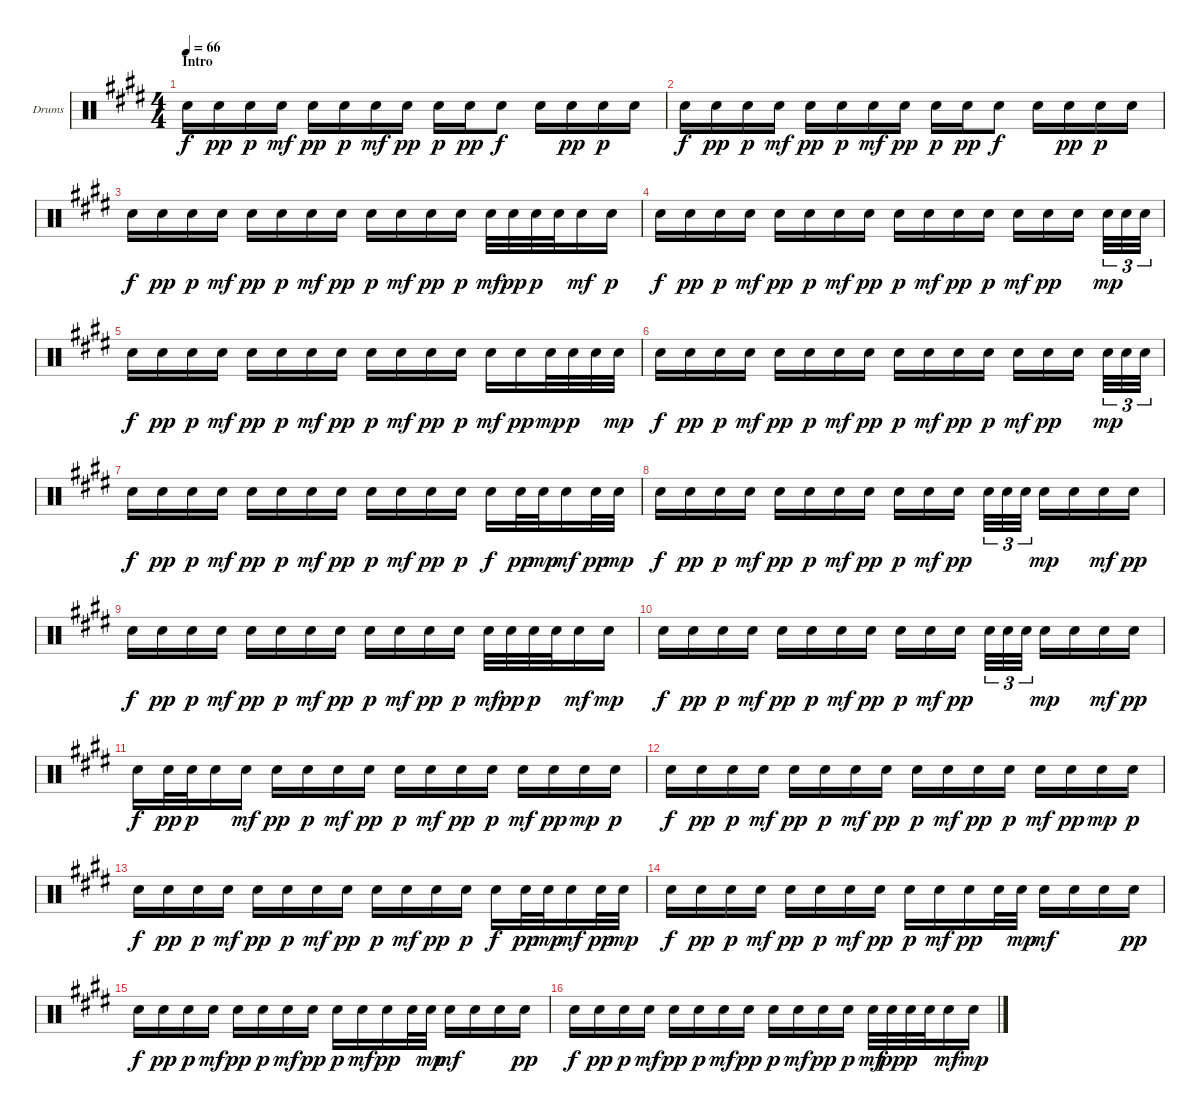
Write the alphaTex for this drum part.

\defaultSystemsLayout 4
\bracketExtendMode groupsimilarinstruments
\firstSystemTrackNameOrientation horizontal
\otherSystemsTrackNameOrientation horizontal
\track ("Drumkit" "Drums") {instrument percussion}
\staff {score}
\articulation defaults
\ts (4 4)
\section ("" "Intro")
\tempo 66
\clef neutral
\ks c#minor "Snare (hit) 2".16{dy f} "Snare (hit) 2".16{dy pp} "Snare (hit) 2".16{dy p} "Snare (hit) 2".16{dy mf} "Snare (hit) 2".16{dy pp} "Snare (hit) 2".16{dy p} "Snare (hit) 2".16{dy mf} "Snare (hit) 2".16{dy pp} "Snare (hit) 2".16{dy p} "Snare (hit) 2".16{dy pp} "Snare (hit) 2".8{dy f} "Snare (hit) 2".16 "Snare (hit) 2".16{dy pp} "Snare (hit) 2".16{dy p} "Snare (hit) 2".16
|
"Snare (hit) 2".16{dy f} "Snare (hit) 2".16{dy pp} "Snare (hit) 2".16{dy p} "Snare (hit) 2".16{dy mf} "Snare (hit) 2".16{dy pp} "Snare (hit) 2".16{dy p} "Snare (hit) 2".16{dy mf} "Snare (hit) 2".16{dy pp} "Snare (hit) 2".16{dy p} "Snare (hit) 2".16{dy pp} "Snare (hit) 2".8{dy f} "Snare (hit) 2".16 "Snare (hit) 2".16{dy pp} "Snare (hit) 2".16{dy p} "Snare (hit) 2".16 |
"Snare (hit) 2".16{dy f} "Snare (hit) 2".16{dy pp} "Snare (hit) 2".16{dy p} "Snare (hit) 2".16{dy mf} "Snare (hit) 2".16{dy pp} "Snare (hit) 2".16{dy p} "Snare (hit) 2".16{dy mf} "Snare (hit) 2".16{dy pp} "Snare (hit) 2".16{dy p} "Snare (hit) 2".16{dy mf} "Snare (hit) 2".16{dy pp} "Snare (hit) 2".16{dy p} "Snare (hit) 2".32{dy mf} "Snare (hit) 2".32{dy pp} "Snare (hit) 2".32{dy p} "Snare (hit) 2".32 "Snare (hit) 2".16{dy mf} "Snare (hit) 2".16{dy p} |
"Snare (hit) 2".16{dy f} "Snare (hit) 2".16{dy pp} "Snare (hit) 2".16{dy p} "Snare (hit) 2".16{dy mf} "Snare (hit) 2".16{dy pp} "Snare (hit) 2".16{dy p} "Snare (hit) 2".16{dy mf} "Snare (hit) 2".16{dy pp} "Snare (hit) 2".16{dy p} "Snare (hit) 2".16{dy mf} "Snare (hit) 2".16{dy pp} "Snare (hit) 2".16{dy p} "Snare (hit) 2".16{dy mf} "Snare (hit) 2".16{dy pp} "Snare (hit) 2".16 "Snare (hit) 2".32{tu (3 2) dy mp} "Snare (hit) 2".32{tu (3 2)} "Snare (hit) 2".32{tu (3 2)} |
"Snare (hit) 2".16{dy f} "Snare (hit) 2".16{dy pp} "Snare (hit) 2".16{dy p} "Snare (hit) 2".16{dy mf} "Snare (hit) 2".16{dy pp} "Snare (hit) 2".16{dy p} "Snare (hit) 2".16{dy mf} "Snare (hit) 2".16{dy pp} "Snare (hit) 2".16{dy p} "Snare (hit) 2".16{dy mf} "Snare (hit) 2".16{dy pp} "Snare (hit) 2".16{dy p} "Snare (hit) 2".16{dy mf} "Snare (hit) 2".16{dy pp} "Snare (hit) 2".32{dy mp} "Snare (hit) 2".32{dy p} "Snare (hit) 2".32 "Snare (hit) 2".32{dy mp} |
"Snare (hit) 2".16{dy f} "Snare (hit) 2".16{dy pp} "Snare (hit) 2".16{dy p} "Snare (hit) 2".16{dy mf} "Snare (hit) 2".16{dy pp} "Snare (hit) 2".16{dy p} "Snare (hit) 2".16{dy mf} "Snare (hit) 2".16{dy pp} "Snare (hit) 2".16{dy p} "Snare (hit) 2".16{dy mf} "Snare (hit) 2".16{dy pp} "Snare (hit) 2".16{dy p} "Snare (hit) 2".16{dy mf} "Snare (hit) 2".16{dy pp} "Snare (hit) 2".16 "Snare (hit) 2".32{tu (3 2) dy mp} "Snare (hit) 2".32{tu (3 2)} "Snare (hit) 2".32{tu (3 2)} |
"Snare (hit) 2".16{dy f} "Snare (hit) 2".16{dy pp} "Snare (hit) 2".16{dy p} "Snare (hit) 2".16{dy mf} "Snare (hit) 2".16{dy pp} "Snare (hit) 2".16{dy p} "Snare (hit) 2".16{dy mf} "Snare (hit) 2".16{dy pp} "Snare (hit) 2".16{dy p} "Snare (hit) 2".16{dy mf} "Snare (hit) 2".16{dy pp} "Snare (hit) 2".16{dy p} "Snare (hit) 2".16{dy f} "Snare (hit) 2".32{dy pp} "Snare (hit) 2".32{dy mp} "Snare (hit) 2".16{dy mf} "Snare (hit) 2".32{dy pp} "Snare (hit) 2".32{dy mp} |
"Snare (hit) 2".16{dy f} "Snare (hit) 2".16{dy pp} "Snare (hit) 2".16{dy p} "Snare (hit) 2".16{dy mf} "Snare (hit) 2".16{dy pp} "Snare (hit) 2".16{dy p} "Snare (hit) 2".16{dy mf} "Snare (hit) 2".16{dy pp} "Snare (hit) 2".16{dy p} "Snare (hit) 2".16{dy mf} "Snare (hit) 2".16{dy pp} "Snare (hit) 2".32{tu (3 2)} "Snare (hit) 2".32{tu (3 2)} "Snare (hit) 2".32{tu (3 2)} "Snare (hit) 2".16{dy mp} "Snare (hit) 2".16 "Snare (hit) 2".16{dy mf} "Snare (hit) 2".16{dy pp} |
"Snare (hit) 2".16{dy f} "Snare (hit) 2".16{dy pp} "Snare (hit) 2".16{dy p} "Snare (hit) 2".16{dy mf} "Snare (hit) 2".16{dy pp} "Snare (hit) 2".16{dy p} "Snare (hit) 2".16{dy mf} "Snare (hit) 2".16{dy pp} "Snare (hit) 2".16{dy p} "Snare (hit) 2".16{dy mf} "Snare (hit) 2".16{dy pp} "Snare (hit) 2".16{dy p} "Snare (hit) 2".32{dy mf} "Snare (hit) 2".32{dy pp} "Snare (hit) 2".32{dy p} "Snare (hit) 2".32 "Snare (hit) 2".16{dy mf} "Snare (hit) 2".16{dy mp} |
"Snare (hit) 2".16{dy f} "Snare (hit) 2".16{dy pp} "Snare (hit) 2".16{dy p} "Snare (hit) 2".16{dy mf} "Snare (hit) 2".16{dy pp} "Snare (hit) 2".16{dy p} "Snare (hit) 2".16{dy mf} "Snare (hit) 2".16{dy pp} "Snare (hit) 2".16{dy p} "Snare (hit) 2".16{dy mf} "Snare (hit) 2".16{dy pp} "Snare (hit) 2".32{tu (3 2)} "Snare (hit) 2".32{tu (3 2)} "Snare (hit) 2".32{tu (3 2)} "Snare (hit) 2".16{dy mp} "Snare (hit) 2".16 "Snare (hit) 2".16{dy mf} "Snare (hit) 2".16{dy pp} |
"Snare (hit) 2".16{dy f} "Snare (hit) 2".32{dy pp} "Snare (hit) 2".32{dy p} "Snare (hit) 2".16 "Snare (hit) 2".16{dy mf} "Snare (hit) 2".16{dy pp} "Snare (hit) 2".16{dy p} "Snare (hit) 2".16{dy mf} "Snare (hit) 2".16{dy pp} "Snare (hit) 2".16{dy p} "Snare (hit) 2".16{dy mf} "Snare (hit) 2".16{dy pp} "Snare (hit) 2".16{dy p} "Snare (hit) 2".16{dy mf} "Snare (hit) 2".16{dy pp} "Snare (hit) 2".16{dy mp} "Snare (hit) 2".16{dy p} |
"Snare (hit) 2".16{dy f} "Snare (hit) 2".16{dy pp} "Snare (hit) 2".16{dy p} "Snare (hit) 2".16{dy mf} "Snare (hit) 2".16{dy pp} "Snare (hit) 2".16{dy p} "Snare (hit) 2".16{dy mf} "Snare (hit) 2".16{dy pp} "Snare (hit) 2".16{dy p} "Snare (hit) 2".16{dy mf} "Snare (hit) 2".16{dy pp} "Snare (hit) 2".16{dy p} "Snare (hit) 2".16{dy mf} "Snare (hit) 2".16{dy pp} "Snare (hit) 2".16{dy mp} "Snare (hit) 2".16{dy p} |
"Snare (hit) 2".16{dy f} "Snare (hit) 2".16{dy pp} "Snare (hit) 2".16{dy p} "Snare (hit) 2".16{dy mf} "Snare (hit) 2".16{dy pp} "Snare (hit) 2".16{dy p} "Snare (hit) 2".16{dy mf} "Snare (hit) 2".16{dy pp} "Snare (hit) 2".16{dy p} "Snare (hit) 2".16{dy mf} "Snare (hit) 2".16{dy pp} "Snare (hit) 2".16{dy p} "Snare (hit) 2".16{dy f} "Snare (hit) 2".32{dy pp} "Snare (hit) 2".32{dy mp} "Snare (hit) 2".16{dy mf} "Snare (hit) 2".32{dy pp} "Snare (hit) 2".32{dy mp} |
"Snare (hit) 2".16{dy f} "Snare (hit) 2".16{dy pp} "Snare (hit) 2".16{dy p} "Snare (hit) 2".16{dy mf} "Snare (hit) 2".16{dy pp} "Snare (hit) 2".16{dy p} "Snare (hit) 2".16{dy mf} "Snare (hit) 2".16{dy pp} "Snare (hit) 2".16{dy p} "Snare (hit) 2".16{dy mf} "Snare (hit) 2".16{dy pp} "Snare (hit) 2".32 "Snare (hit) 2".32{dy mp} "Snare (hit) 2".16{dy mf} "Snare (hit) 2".16 "Snare (hit) 2".16 "Snare (hit) 2".16{dy pp} |
"Snare (hit) 2".16{dy f} "Snare (hit) 2".16{dy pp} "Snare (hit) 2".16{dy p} "Snare (hit) 2".16{dy mf} "Snare (hit) 2".16{dy pp} "Snare (hit) 2".16{dy p} "Snare (hit) 2".16{dy mf} "Snare (hit) 2".16{dy pp} "Snare (hit) 2".16{dy p} "Snare (hit) 2".16{dy mf} "Snare (hit) 2".16{dy pp} "Snare (hit) 2".32 "Snare (hit) 2".32{dy mp} "Snare (hit) 2".16{dy mf} "Snare (hit) 2".16 "Snare (hit) 2".16 "Snare (hit) 2".16{dy pp} |
"Snare (hit) 2".16{dy f} "Snare (hit) 2".16{dy pp} "Snare (hit) 2".16{dy p} "Snare (hit) 2".16{dy mf} "Snare (hit) 2".16{dy pp} "Snare (hit) 2".16{dy p} "Snare (hit) 2".16{dy mf} "Snare (hit) 2".16{dy pp} "Snare (hit) 2".16{dy p} "Snare (hit) 2".16{dy mf} "Snare (hit) 2".16{dy pp} "Snare (hit) 2".16{dy p} "Snare (hit) 2".32{dy mf} "Snare (hit) 2".32{dy pp} "Snare (hit) 2".32{dy p} "Snare (hit) 2".32 "Snare (hit) 2".16{dy mf} "Snare (hit) 2".16{dy mp}
